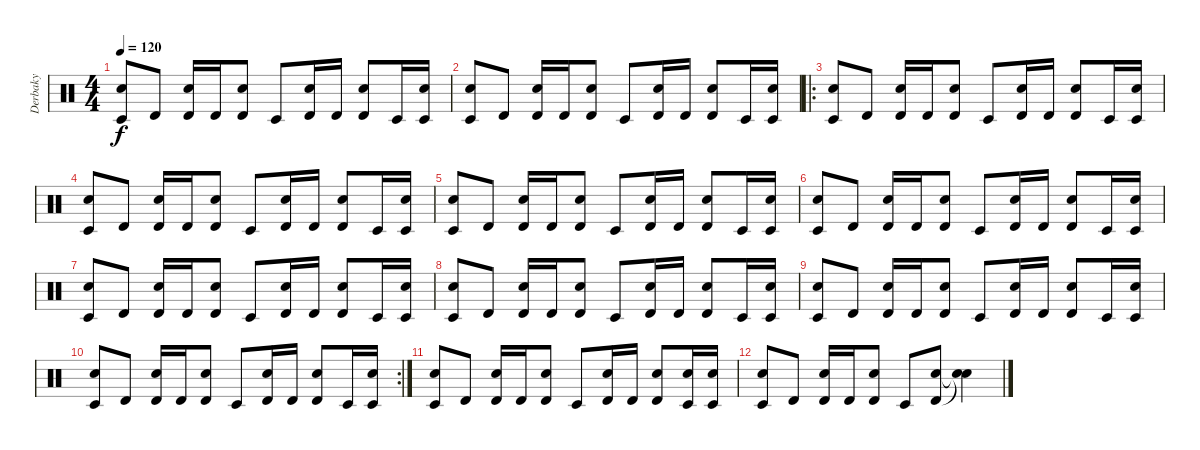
\track ("Derbaky" "Derbaky") {instrument percussion}
\staff {score}
\articulation defaults
\ts (4 4)
\tempo 120
\clef neutral
\ks c
("Timbale low (hit)" "Snare (hit) 2").8{dy f} "Timbale high (hit)".8 ("Timbale high (hit)" "Snare (hit) 2").16 "Timbale high (hit)".16 ("Timbale high (hit)" "Snare (hit) 2").8 "Timbale low (hit)".8 ("Timbale high (hit)" "Snare (hit) 2").16 "Timbale high (hit)".16 ("Timbale high (hit)" "Snare (hit) 2").8 "Timbale low (hit)".16 ("Timbale low (hit)" "Snare (hit) 2").16 |
("Timbale low (hit)" "Snare (hit) 2").8 "Timbale high (hit)".8 ("Timbale high (hit)" "Snare (hit) 2").16 "Timbale high (hit)".16 ("Timbale high (hit)" "Snare (hit) 2").8 "Timbale low (hit)".8 ("Timbale high (hit)" "Snare (hit) 2").16 "Timbale high (hit)".16 ("Timbale high (hit)" "Snare (hit) 2").8 "Timbale low (hit)".16 ("Timbale low (hit)" "Snare (hit) 2").16 |
\ro
("Timbale low (hit)" "Snare (hit) 2").8 "Timbale high (hit)".8 ("Timbale high (hit)" "Snare (hit) 2").16 "Timbale high (hit)".16 ("Timbale high (hit)" "Snare (hit) 2").8 "Timbale low (hit)".8 ("Timbale high (hit)" "Snare (hit) 2").16 "Timbale high (hit)".16 ("Timbale high (hit)" "Snare (hit) 2").8 "Timbale low (hit)".16 ("Timbale low (hit)" "Snare (hit) 2").16 |
("Timbale low (hit)" "Snare (hit) 2").8 "Timbale high (hit)".8 ("Timbale high (hit)" "Snare (hit) 2").16 "Timbale high (hit)".16 ("Timbale high (hit)" "Snare (hit) 2").8 "Timbale low (hit)".8 ("Timbale high (hit)" "Snare (hit) 2").16 "Timbale high (hit)".16 ("Timbale high (hit)" "Snare (hit) 2").8 "Timbale low (hit)".16 ("Timbale low (hit)" "Snare (hit) 2").16 |
("Timbale low (hit)" "Snare (hit) 2").8 "Timbale high (hit)".8 ("Timbale high (hit)" "Snare (hit) 2").16 "Timbale high (hit)".16 ("Timbale high (hit)" "Snare (hit) 2").8 "Timbale low (hit)".8 ("Timbale high (hit)" "Snare (hit) 2").16 "Timbale high (hit)".16 ("Timbale high (hit)" "Snare (hit) 2").8 "Timbale low (hit)".16 ("Timbale low (hit)" "Snare (hit) 2").16 |
("Timbale low (hit)" "Snare (hit) 2").8 "Timbale high (hit)".8 ("Timbale high (hit)" "Snare (hit) 2").16 "Timbale high (hit)".16 ("Timbale high (hit)" "Snare (hit) 2").8 "Timbale low (hit)".8 ("Timbale high (hit)" "Snare (hit) 2").16 "Timbale high (hit)".16 ("Timbale high (hit)" "Snare (hit) 2").8 "Timbale low (hit)".16 ("Timbale low (hit)" "Snare (hit) 2").16 |
("Timbale low (hit)" "Snare (hit) 2").8 "Timbale high (hit)".8 ("Timbale high (hit)" "Snare (hit) 2").16 "Timbale high (hit)".16 ("Timbale high (hit)" "Snare (hit) 2").8 "Timbale low (hit)".8 ("Timbale high (hit)" "Snare (hit) 2").16 "Timbale high (hit)".16 ("Timbale high (hit)" "Snare (hit) 2").8 "Timbale low (hit)".16 ("Timbale low (hit)" "Snare (hit) 2").16 |
("Timbale low (hit)" "Snare (hit) 2").8 "Timbale high (hit)".8 ("Timbale high (hit)" "Snare (hit) 2").16 "Timbale high (hit)".16 ("Timbale high (hit)" "Snare (hit) 2").8 "Timbale low (hit)".8 ("Timbale high (hit)" "Snare (hit) 2").16 "Timbale high (hit)".16 ("Timbale high (hit)" "Snare (hit) 2").8 "Timbale low (hit)".16 ("Timbale low (hit)" "Snare (hit) 2").16 |
("Timbale low (hit)" "Snare (hit) 2").8 "Timbale high (hit)".8 ("Timbale high (hit)" "Snare (hit) 2").16 "Timbale high (hit)".16 ("Timbale high (hit)" "Snare (hit) 2").8 "Timbale low (hit)".8 ("Timbale high (hit)" "Snare (hit) 2").16 "Timbale high (hit)".16 ("Timbale high (hit)" "Snare (hit) 2").8 "Timbale low (hit)".16 ("Timbale low (hit)" "Snare (hit) 2").16 |
\rc 2
("Timbale low (hit)" "Snare (hit) 2").8 "Timbale high (hit)".8 ("Timbale high (hit)" "Snare (hit) 2").16 "Timbale high (hit)".16 ("Timbale high (hit)" "Snare (hit) 2").8 "Timbale low (hit)".8 ("Timbale high (hit)" "Snare (hit) 2").16 "Timbale high (hit)".16 ("Timbale high (hit)" "Snare (hit) 2").8 "Timbale low (hit)".16 ("Timbale low (hit)" "Snare (hit) 2").16 |
("Timbale low (hit)" "Snare (hit) 2").8 "Timbale high (hit)".8 ("Timbale high (hit)" "Snare (hit) 2").16 "Timbale high (hit)".16 ("Timbale high (hit)" "Snare (hit) 2").8 "Timbale low (hit)".8 ("Timbale high (hit)" "Snare (hit) 2").16 "Timbale high (hit)".16 ("Timbale high (hit)" "Snare (hit) 2").8 ("Timbale low (hit)" "Snare (hit) 2").16 ("Timbale low (hit)" "Snare (hit) 2").16 |
("Timbale low (hit)" "Snare (hit) 2").8 "Timbale high (hit)".8 ("Timbale high (hit)" "Snare (hit) 2").16 "Timbale high (hit)".16 ("Timbale high (hit)" "Snare (hit) 2").8 "Timbale low (hit)".8 ("Timbale high (hit)" "Snare (hit) 2").8 ("Snare (hit)"{t} "Snare (hit)"{t}).4
